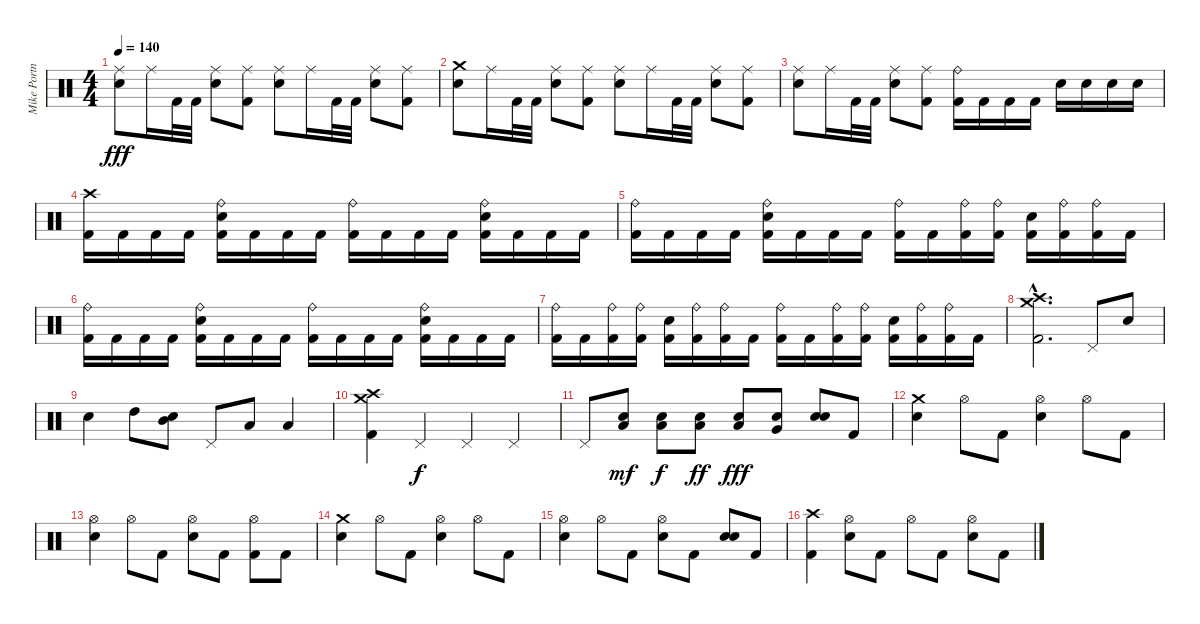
\track ("Mike Portnoy - Drum" "Mike Portn") {instrument percussion}
\staff {score}
\articulation defaults
\ts (4 4)
\tempo 140
\clef neutral
\ks c
("Ride (middle)" "Snare (hit) 2").8{dy fff} "Ride (middle)".16 "Kick (hit) 2".32 "Kick (hit) 2".32 ("Ride (middle)" "Snare (hit) 2").8 ("Ride (middle)" "Kick (hit) 2").8 ("Ride (middle)" "Snare (hit) 2").8 "Ride (middle)".16 "Kick (hit) 2".32 "Kick (hit) 2".32 ("Ride (middle)" "Snare (hit) 2").8 ("Ride (middle)" "Kick (hit) 2").8 |
("Crash medium (hit)" "Snare (hit) 2").8 "Ride (middle)".16 "Kick (hit) 2".32 "Kick (hit) 2".32 ("Ride (middle)" "Snare (hit) 2").8 ("Ride (middle)" "Kick (hit) 2").8 ("Ride (middle)" "Snare (hit) 2").8 "Ride (middle)".16 "Kick (hit) 2".32 "Kick (hit) 2".32 ("Ride (middle)" "Snare (hit) 2").8 ("Ride (middle)" "Kick (hit) 2").8 |
("Ride (middle)" "Snare (hit) 2").8 "Ride (middle)".16 "Kick (hit) 2".32 "Kick (hit) 2".32 ("Ride (middle)" "Snare (hit) 2").8 ("Ride (middle)" "Kick (hit) 2").8 ("Ride (bell)" "Kick (hit) 2").16 "Kick (hit) 2".16 "Kick (hit) 2".16 "Kick (hit) 2".16 "Snare (hit) 2".16 "Snare (hit) 2".16 "Snare (hit) 2".16 "Snare (hit) 2".16 |
("Crash high (hit)" "Kick (hit) 2").16 "Kick (hit) 2".16 "Kick (hit) 2".16 "Kick (hit) 2".16 ("Ride (bell)" "Snare (hit) 2" "Kick (hit) 2").16 "Kick (hit) 2".16 "Kick (hit) 2".16 "Kick (hit) 2".16 ("Ride (bell)" "Kick (hit) 2").16 "Kick (hit) 2".16 "Kick (hit) 2".16 "Kick (hit) 2".16 ("Ride (bell)" "Snare (hit) 2" "Kick (hit) 2").16 "Kick (hit) 2".16 "Kick (hit) 2".16 "Kick (hit) 2".16 |
("Ride (bell)" "Kick (hit) 2").16 "Kick (hit) 2".16 "Kick (hit) 2".16 "Kick (hit) 2".16 ("Ride (bell)" "Snare (hit) 2" "Kick (hit) 2").16 "Kick (hit) 2".16 "Kick (hit) 2".16 "Kick (hit) 2".16 ("Ride (bell)" "Kick (hit) 2").16 "Kick (hit) 2".16 ("Ride (bell)" "Kick (hit) 2").16 ("Ride (bell)" "Kick (hit) 2").16 ("Snare (hit) 2" "Kick (hit) 2").16 ("Ride (bell)" "Kick (hit) 2").16 ("Ride (bell)" "Kick (hit) 2").16 "Kick (hit) 2".16 |
("Ride (bell)" "Kick (hit) 2").16 "Kick (hit) 2".16 "Kick (hit) 2".16 "Kick (hit) 2".16 ("Ride (bell)" "Snare (hit) 2" "Kick (hit) 2").16 "Kick (hit) 2".16 "Kick (hit) 2".16 "Kick (hit) 2".16 ("Ride (bell)" "Kick (hit) 2").16 "Kick (hit) 2".16 "Kick (hit) 2".16 "Kick (hit) 2".16 ("Ride (bell)" "Snare (hit) 2" "Kick (hit) 2").16 "Kick (hit) 2".16 "Kick (hit) 2".16 "Kick (hit) 2".16 |
("Ride (bell)" "Kick (hit) 2").16 "Kick (hit) 2".16 ("Ride (bell)" "Kick (hit) 2").16 ("Ride (bell)" "Kick (hit) 2").16 ("Snare (hit) 2" "Kick (hit) 2").16 ("Ride (bell)" "Kick (hit) 2").16 ("Ride (bell)" "Kick (hit) 2").16 "Kick (hit) 2".16 ("Ride (bell)" "Kick (hit) 2").16 "Kick (hit) 2".16 ("Ride (bell)" "Kick (hit) 2").16 ("Ride (bell)" "Kick (hit) 2").16 ("Snare (hit) 2" "Kick (hit) 2").16 ("Ride (bell)" "Kick (hit) 2").16 ("Ride (bell)" "Kick (hit) 2").16 "Kick (hit) 2".16 |
("Crash high (hit)"{hac} "Crash medium (hit)"{hac} "Kick (hit) 2"{hac}).2{d} "Pedal Hi-Hat (hit)".8 "Snare (hit) 2".8 |
"Snare (hit) 2".4 "High Tom (hit)".8 ("Mid Tom (hit)" "Snare (hit) 2").8 "Pedal Hi-Hat (hit)".8 "Low Tom (hit)".8 "Low Tom (hit)".4 |
("Crash high (hit)" "Crash medium (hit)" "Kick (hit) 2").4 "Pedal Hi-Hat (hit)".4{dy f} "Pedal Hi-Hat (hit)".4 "Pedal Hi-Hat (hit)".4 |
"Pedal Hi-Hat (hit)".8 ("Low Tom (hit)" "Snare (hit) 2").8{dy mf} ("Low Tom (hit)" "Snare (hit) 2").8{dy f} ("Low Tom (hit)" "Snare (hit) 2").8{dy ff} ("Low Tom (hit)" "Snare (hit) 2").8{dy fff} ("Very Low Tom (hit)" "Snare (hit) 2").8 ("Snare (hit) 2" "Snare (hit) 2").8 "Kick (hit) 2".8 |
("Crash medium (hit)" "Snare (hit) 2").4 "Hi-Hat (open)".8 "Kick (hit) 2".8 ("Hi-Hat (open)" "Snare (hit) 2").4 "Hi-Hat (open)".8 "Kick (hit) 2".8 |
("Hi-Hat (open)" "Snare (hit) 2").4 "Hi-Hat (open)".8 "Kick (hit) 2".8 ("Hi-Hat (open)" "Snare (hit) 2").8 "Kick (hit) 2".8 ("Hi-Hat (open)" "Kick (hit) 2").8 "Kick (hit) 2".8 |
("Crash medium (hit)" "Snare (hit) 2").4 "Hi-Hat (open)".8 "Kick (hit) 2".8 ("Hi-Hat (open)" "Snare (hit) 2").4 "Hi-Hat (open)".8 "Kick (hit) 2".8 |
("Hi-Hat (open)" "Snare (hit) 2").4 "Hi-Hat (open)".8 "Kick (hit) 2".8 ("Hi-Hat (open)" "Snare (hit) 2").8 "Kick (hit) 2".8 ("Snare (hit) 2" "Snare (hit) 2").8 "Kick (hit) 2".8 |
("Crash high (hit)" "Kick (hit) 2").4 ("Hi-Hat (open)" "Snare (hit) 2").8 "Kick (hit) 2".8 "Hi-Hat (open)".8 "Kick (hit) 2".8 ("Hi-Hat (open)" "Snare (hit) 2").8 "Kick (hit) 2".8
